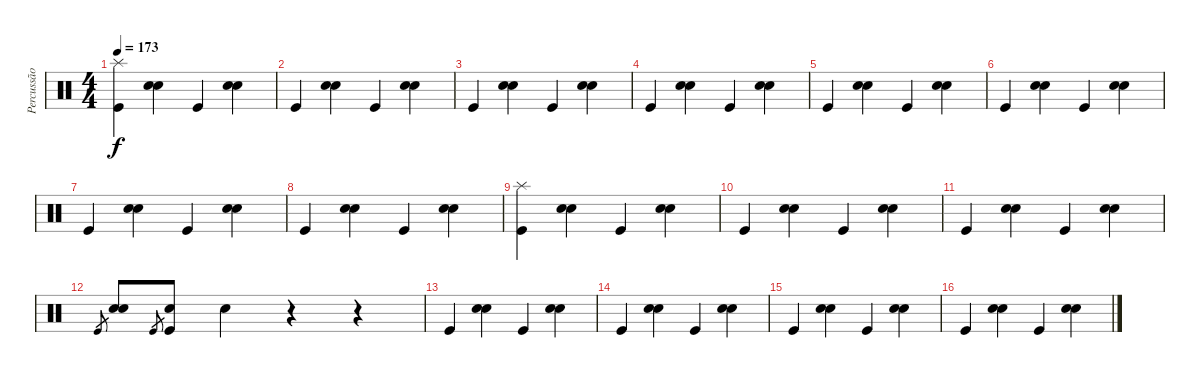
\track ("Percussão" "Percussão") {instrument percussion}
\staff {score}
\articulation defaults
\ts (4 4)
\tempo 173
\clef neutral
\ks c
("Kick (hit)" "Splash (hit)").4{dy f} ("Snare (hit) 2" "Electric Snare (hit)").4 "Kick (hit)".4 ("Snare (hit) 2" "Electric Snare (hit)").4 |
"Kick (hit)".4 ("Snare (hit) 2" "Electric Snare (hit)").4 "Kick (hit)".4 ("Snare (hit) 2" "Electric Snare (hit)").4 |
"Kick (hit)".4 ("Snare (hit) 2" "Electric Snare (hit)").4 "Kick (hit)".4 ("Snare (hit) 2" "Electric Snare (hit)").4 |
"Kick (hit)".4 ("Snare (hit) 2" "Electric Snare (hit)").4 "Kick (hit)".4 ("Snare (hit) 2" "Electric Snare (hit)").4 |
"Kick (hit)".4 ("Snare (hit) 2" "Electric Snare (hit)").4 "Kick (hit)".4 ("Snare (hit) 2" "Electric Snare (hit)").4 |
"Kick (hit)".4 ("Snare (hit) 2" "Electric Snare (hit)").4 "Kick (hit)".4 ("Snare (hit) 2" "Electric Snare (hit)").4 |
"Kick (hit)".4 ("Snare (hit) 2" "Electric Snare (hit)").4 "Kick (hit)".4 ("Snare (hit) 2" "Electric Snare (hit)").4 |
"Kick (hit)".4 ("Snare (hit) 2" "Electric Snare (hit)").4 "Kick (hit)".4 ("Snare (hit) 2" "Electric Snare (hit)").4 |
("Kick (hit)" "Splash (hit)").4 ("Snare (hit) 2" "Electric Snare (hit)").4 "Kick (hit)".4 ("Snare (hit) 2" "Electric Snare (hit)").4 |
"Kick (hit)".4 ("Snare (hit) 2" "Electric Snare (hit)").4 "Kick (hit)".4 ("Snare (hit) 2" "Electric Snare (hit)").4 |
"Kick (hit)".4 ("Snare (hit) 2" "Electric Snare (hit)").4 "Kick (hit)".4 ("Snare (hit) 2" "Electric Snare (hit)").4 |
"Kick (hit)".8{gr} ("Snare (hit) 2" "Electric Snare (hit)").8 "Kick (hit)".8{gr} ("Kick (hit)" "Electric Snare (hit)").8 "Snare (hit) 2".4 r.4 r.4 |
"Kick (hit)".4 ("Snare (hit) 2" "Electric Snare (hit)").4 "Kick (hit)".4 ("Snare (hit) 2" "Electric Snare (hit)").4 |
"Kick (hit)".4 ("Snare (hit) 2" "Electric Snare (hit)").4 "Kick (hit)".4 ("Snare (hit) 2" "Electric Snare (hit)").4 |
"Kick (hit)".4 ("Snare (hit) 2" "Electric Snare (hit)").4 "Kick (hit)".4 ("Snare (hit) 2" "Electric Snare (hit)").4 |
"Kick (hit)".4 ("Snare (hit) 2" "Electric Snare (hit)").4 "Kick (hit)".4 ("Snare (hit) 2" "Electric Snare (hit)").4
